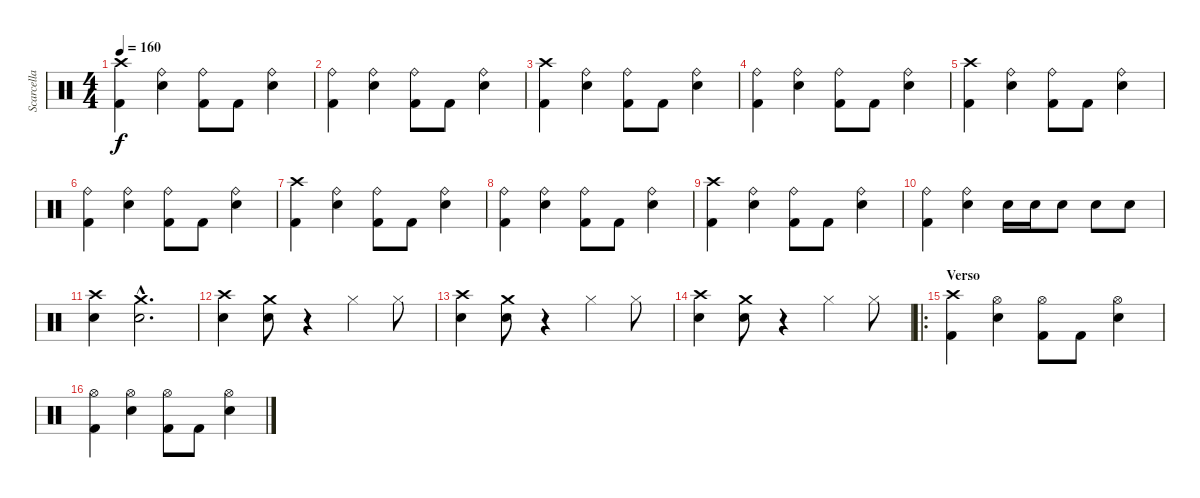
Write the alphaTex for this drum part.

\track ("Scarcella" "Scarcella") {instrument percussion}
\staff {score}
\articulation defaults
\ts (4 4)
\tempo 160
\clef neutral
\ks c
("Crash high (hit)" "Kick (hit) 2").4{dy f} ("Ride (bell)" "Snare (hit) 2").4 ("Ride (bell)" "Kick (hit) 2").8 "Kick (hit) 2".8 ("Ride (bell)" "Snare (hit) 2").4 |
("Ride (bell)" "Kick (hit) 2").4 ("Ride (bell)" "Snare (hit) 2").4 ("Ride (bell)" "Kick (hit) 2").8 "Kick (hit) 2".8 ("Ride (bell)" "Snare (hit) 2").4 |
("Crash high (hit)" "Kick (hit) 2").4 ("Ride (bell)" "Snare (hit) 2").4 ("Ride (bell)" "Kick (hit) 2").8 "Kick (hit) 2".8 ("Ride (bell)" "Snare (hit) 2").4 |
("Ride (bell)" "Kick (hit) 2").4 ("Ride (bell)" "Snare (hit) 2").4 ("Ride (bell)" "Kick (hit) 2").8 "Kick (hit) 2".8 ("Ride (bell)" "Snare (hit) 2").4 |
("Crash high (hit)" "Kick (hit) 2").4 ("Ride (bell)" "Snare (hit) 2").4 ("Ride (bell)" "Kick (hit) 2").8 "Kick (hit) 2".8 ("Ride (bell)" "Snare (hit) 2").4 |
("Ride (bell)" "Kick (hit) 2").4 ("Ride (bell)" "Snare (hit) 2").4 ("Ride (bell)" "Kick (hit) 2").8 "Kick (hit) 2".8 ("Ride (bell)" "Snare (hit) 2").4 |
("Crash high (hit)" "Kick (hit) 2").4 ("Ride (bell)" "Snare (hit) 2").4 ("Ride (bell)" "Kick (hit) 2").8 "Kick (hit) 2".8 ("Ride (bell)" "Snare (hit) 2").4 |
("Ride (bell)" "Kick (hit) 2").4 ("Ride (bell)" "Snare (hit) 2").4 ("Ride (bell)" "Kick (hit) 2").8 "Kick (hit) 2".8 ("Ride (bell)" "Snare (hit) 2").4 |
("Crash high (hit)" "Kick (hit) 2").4 ("Ride (bell)" "Snare (hit) 2").4 ("Ride (bell)" "Kick (hit) 2").8 "Kick (hit) 2".8 ("Ride (bell)" "Snare (hit) 2").4 |
("Ride (bell)" "Kick (hit) 2").4 ("Ride (bell)" "Snare (hit) 2").4 "Snare (hit) 2".16 "Snare (hit) 2".16 "Snare (hit) 2".8 "Snare (hit) 2".8 "Snare (hit) 2".8 |
("Crash high (hit)" "Snare (hit) 2").4 ("Crash medium (hit)"{hac} "Snare (hit) 2"{hac}).2{d} |
("Crash high (hit)" "Snare (hit) 2").4 ("Crash medium (hit)" "Snare (hit) 2").8 r.4 "Hi-Hat (closed)".4 "Hi-Hat (closed)".8 |
("Crash high (hit)" "Snare (hit) 2").4 ("Crash medium (hit)" "Snare (hit) 2").8 r.4 "Hi-Hat (closed)".4 "Hi-Hat (closed)".8 |
("Crash high (hit)" "Snare (hit) 2").4 ("Crash medium (hit)" "Snare (hit) 2").8 r.4 "Hi-Hat (closed)".4 "Hi-Hat (closed)".8 |
\ro
\section ("" "Verso")
("Crash high (hit)" "Kick (hit) 2").4 ("Hi-Hat (open)" "Snare (hit) 2").4 ("Hi-Hat (open)" "Kick (hit) 2").8 "Kick (hit) 2".8 ("Hi-Hat (open)" "Snare (hit) 2").4 |
("Hi-Hat (open)" "Kick (hit) 2").4 ("Hi-Hat (open)" "Snare (hit) 2").4 ("Hi-Hat (open)" "Kick (hit) 2").8 "Kick (hit) 2".8 ("Hi-Hat (open)" "Snare (hit) 2").4
